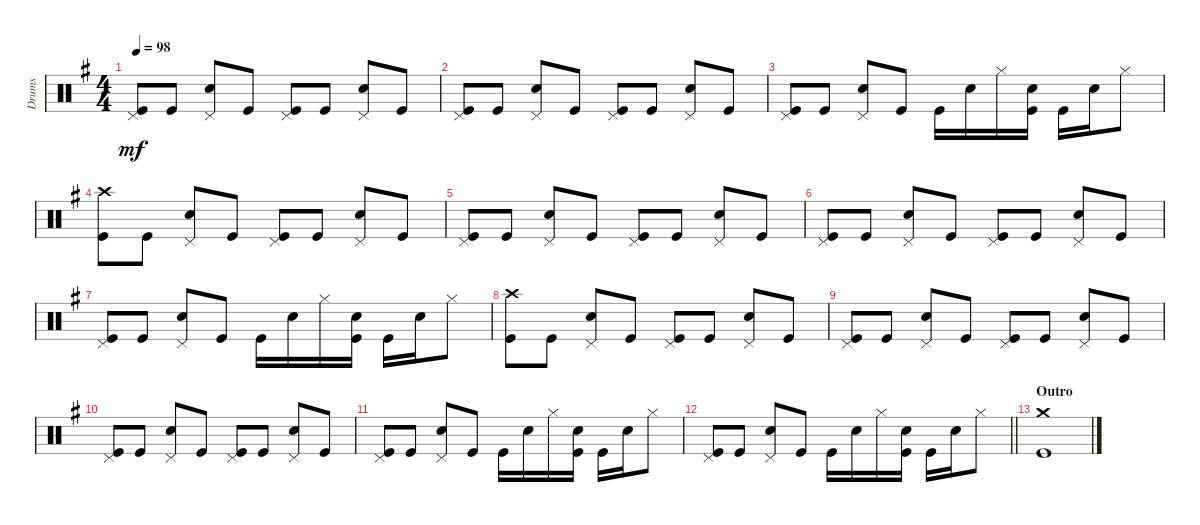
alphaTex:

\track ("Drums" "Drums") {instrument percussion}
\staff {score}
\articulation defaults
\ts (4 4)
\tempo 98
\clef neutral
\ks g
("Kick (hit)" "Pedal Hi-Hat (hit)").8{dy mf} "Kick (hit)".8 ("Snare (hit) 2" "Pedal Hi-Hat (hit)").8 "Kick (hit)".8 ("Kick (hit)" "Pedal Hi-Hat (hit)").8 "Kick (hit)".8 ("Snare (hit) 2" "Pedal Hi-Hat (hit)").8 "Kick (hit)".8 |
("Kick (hit)" "Pedal Hi-Hat (hit)").8 "Kick (hit)".8 ("Snare (hit) 2" "Pedal Hi-Hat (hit)").8 "Kick (hit)".8 ("Kick (hit)" "Pedal Hi-Hat (hit)").8 "Kick (hit)".8 ("Snare (hit) 2" "Pedal Hi-Hat (hit)").8 "Kick (hit)".8 |
("Kick (hit)" "Pedal Hi-Hat (hit)").8 "Kick (hit)".8 ("Snare (hit) 2" "Pedal Hi-Hat (hit)").8 "Kick (hit)".8 "Kick (hit)".16 "Snare (hit) 2".16 "Hi-Hat (closed)".16 ("Kick (hit)" "Snare (hit) 2").16 "Kick (hit)".16 "Snare (hit) 2".16 "Hi-Hat (closed)".8 |
("Kick (hit)" "Crash high (hit)").8 "Kick (hit)".8 ("Snare (hit) 2" "Pedal Hi-Hat (hit)").8 "Kick (hit)".8 ("Kick (hit)" "Pedal Hi-Hat (hit)").8 "Kick (hit)".8 ("Snare (hit) 2" "Pedal Hi-Hat (hit)").8 "Kick (hit)".8 |
("Kick (hit)" "Pedal Hi-Hat (hit)").8 "Kick (hit)".8 ("Snare (hit) 2" "Pedal Hi-Hat (hit)").8 "Kick (hit)".8 ("Kick (hit)" "Pedal Hi-Hat (hit)").8 "Kick (hit)".8 ("Snare (hit) 2" "Pedal Hi-Hat (hit)").8 "Kick (hit)".8 |
("Kick (hit)" "Pedal Hi-Hat (hit)").8 "Kick (hit)".8 ("Snare (hit) 2" "Pedal Hi-Hat (hit)").8 "Kick (hit)".8 ("Kick (hit)" "Pedal Hi-Hat (hit)").8 "Kick (hit)".8 ("Snare (hit) 2" "Pedal Hi-Hat (hit)").8 "Kick (hit)".8 |
("Kick (hit)" "Pedal Hi-Hat (hit)").8 "Kick (hit)".8 ("Snare (hit) 2" "Pedal Hi-Hat (hit)").8 "Kick (hit)".8 "Kick (hit)".16 "Snare (hit) 2".16 "Hi-Hat (closed)".16 ("Kick (hit)" "Snare (hit) 2").16 "Kick (hit)".16 "Snare (hit) 2".16 "Hi-Hat (closed)".8 |
("Kick (hit)" "Crash high (hit)").8 "Kick (hit)".8 ("Snare (hit) 2" "Pedal Hi-Hat (hit)").8 "Kick (hit)".8 ("Kick (hit)" "Pedal Hi-Hat (hit)").8 "Kick (hit)".8 ("Snare (hit) 2" "Pedal Hi-Hat (hit)").8 "Kick (hit)".8 |
("Kick (hit)" "Pedal Hi-Hat (hit)").8 "Kick (hit)".8 ("Snare (hit) 2" "Pedal Hi-Hat (hit)").8 "Kick (hit)".8 ("Kick (hit)" "Pedal Hi-Hat (hit)").8 "Kick (hit)".8 ("Snare (hit) 2" "Pedal Hi-Hat (hit)").8 "Kick (hit)".8 |
("Kick (hit)" "Pedal Hi-Hat (hit)").8 "Kick (hit)".8 ("Snare (hit) 2" "Pedal Hi-Hat (hit)").8 "Kick (hit)".8 ("Kick (hit)" "Pedal Hi-Hat (hit)").8 "Kick (hit)".8 ("Snare (hit) 2" "Pedal Hi-Hat (hit)").8 "Kick (hit)".8 |
("Kick (hit)" "Pedal Hi-Hat (hit)").8 "Kick (hit)".8 ("Snare (hit) 2" "Pedal Hi-Hat (hit)").8 "Kick (hit)".8 "Kick (hit)".16 "Snare (hit) 2".16 "Hi-Hat (closed)".16 ("Kick (hit)" "Snare (hit) 2").16 "Kick (hit)".16 "Snare (hit) 2".16 "Hi-Hat (closed)".8 |
\barLineRight lightlight
("Kick (hit)" "Pedal Hi-Hat (hit)").8 "Kick (hit)".8 ("Snare (hit) 2" "Pedal Hi-Hat (hit)").8 "Kick (hit)".8 "Kick (hit)".16 "Snare (hit) 2".16 "Hi-Hat (closed)".16 ("Kick (hit)" "Snare (hit) 2").16 "Kick (hit)".16 "Snare (hit) 2".16 "Hi-Hat (closed)".8 |
\section ("" "Outro")
("Kick (hit)" "Crash medium (hit)").1
